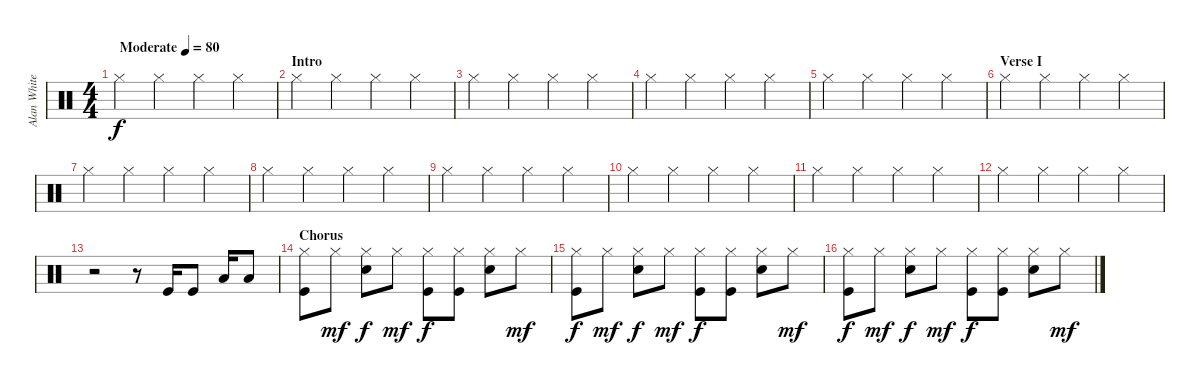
\track ("Alan White" "Alan White") {instrument percussion}
\staff {score}
\articulation defaults
\ts (4 4)
\tempo (80 "Moderate")
\clef neutral
\ks c "Hi-Hat (closed)".4{dy f} "Hi-Hat (closed)".4 "Hi-Hat (closed)".4 "Hi-Hat (closed)".4
|
\section ("" "Intro")
"Hi-Hat (closed)".4 "Hi-Hat (closed)".4 "Hi-Hat (closed)".4 "Hi-Hat (closed)".4 |
"Hi-Hat (closed)".4 "Hi-Hat (closed)".4 "Hi-Hat (closed)".4 "Hi-Hat (closed)".4 |
"Hi-Hat (closed)".4 "Hi-Hat (closed)".4 "Hi-Hat (closed)".4 "Hi-Hat (closed)".4 |
"Hi-Hat (closed)".4 "Hi-Hat (closed)".4 "Hi-Hat (closed)".4 "Hi-Hat (closed)".4 |
\section ("" "Verse I")
"Hi-Hat (closed)".4 "Hi-Hat (closed)".4 "Hi-Hat (closed)".4 "Hi-Hat (closed)".4 |
"Hi-Hat (closed)".4 "Hi-Hat (closed)".4 "Hi-Hat (closed)".4 "Hi-Hat (closed)".4 |
"Hi-Hat (closed)".4 "Hi-Hat (closed)".4 "Hi-Hat (closed)".4 "Hi-Hat (closed)".4 |
"Hi-Hat (closed)".4 "Hi-Hat (closed)".4 "Hi-Hat (closed)".4 "Hi-Hat (closed)".4 |
"Hi-Hat (closed)".4 "Hi-Hat (closed)".4 "Hi-Hat (closed)".4 "Hi-Hat (closed)".4 |
"Hi-Hat (closed)".4 "Hi-Hat (closed)".4 "Hi-Hat (closed)".4 "Hi-Hat (closed)".4 |
"Hi-Hat (closed)".4 "Hi-Hat (closed)".4 "Hi-Hat (closed)".4 "Hi-Hat (closed)".4 |
r.2 r.8 "Kick (hit)".16 "Kick (hit)".8 "Low Floor Tom (hit)".16 "Low Floor Tom (hit)".8 |
\section ("" "Chorus")
("Hi-Hat (closed)" "Kick (hit)").8 "Hi-Hat (closed)".8{dy mf} ("Hi-Hat (closed)" "Snare (hit) 2").8{dy f} "Hi-Hat (closed)".8{dy mf} ("Hi-Hat (closed)" "Kick (hit)").8{dy f} ("Hi-Hat (closed)" "Kick (hit)").8 ("Hi-Hat (closed)" "Snare (hit) 2").8 "Hi-Hat (closed)".8{dy mf} |
("Hi-Hat (closed)" "Kick (hit)").8{dy f} "Hi-Hat (closed)".8{dy mf} ("Hi-Hat (closed)" "Snare (hit) 2").8{dy f} "Hi-Hat (closed)".8{dy mf} ("Hi-Hat (closed)" "Kick (hit)").8{dy f} ("Hi-Hat (closed)" "Kick (hit)").8 ("Hi-Hat (closed)" "Snare (hit) 2").8 "Hi-Hat (closed)".8{dy mf} |
("Hi-Hat (closed)" "Kick (hit)").8{dy f} "Hi-Hat (closed)".8{dy mf} ("Hi-Hat (closed)" "Snare (hit) 2").8{dy f} "Hi-Hat (closed)".8{dy mf} ("Hi-Hat (closed)" "Kick (hit)").8{dy f} ("Hi-Hat (closed)" "Kick (hit)").8 ("Hi-Hat (closed)" "Snare (hit) 2").8 "Hi-Hat (closed)".8{dy mf}
